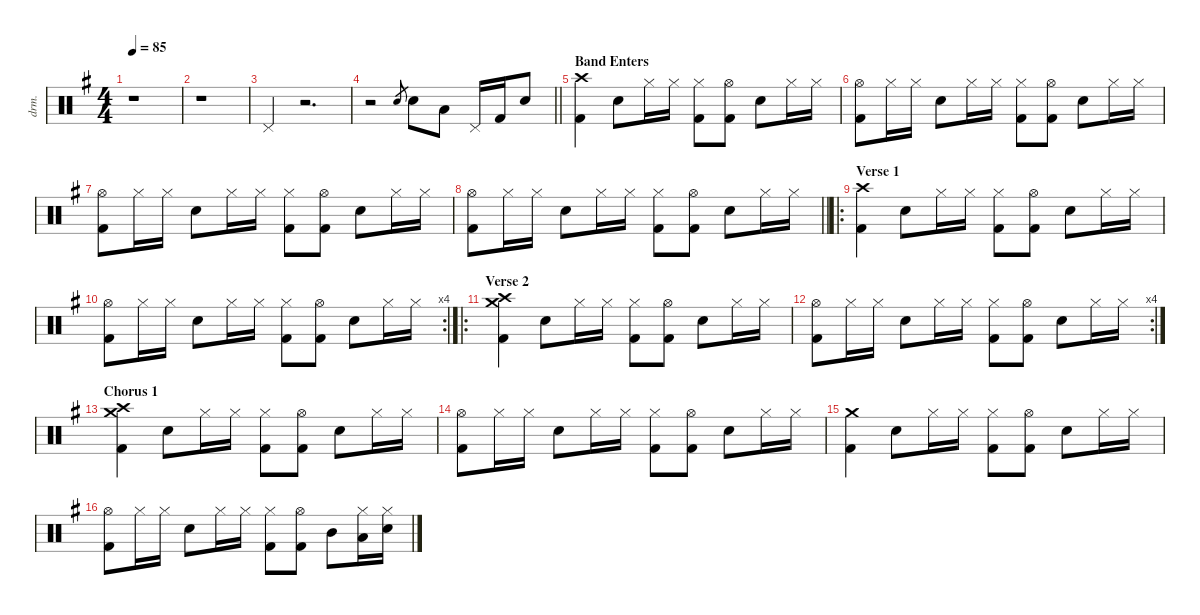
\defaultSystemsLayout 4
\hideDynamics
\bracketExtendMode nobrackets
\otherSystemsTrackNameOrientation horizontal
\track ("Drums" "drm.") {defaultSystemsLayout 4 instrument percussion}
\staff {score}
\articulation defaults
\ts (4 4)
\beaming (8 2 2 2 2)
\tempo 85
\clef neutral
\ks g
r.1{dy f beam Down} |
r.1{beam Down} |
"Pedal Hi-Hat (hit)"{acc forcenatural}.4{beam Up} r.2{d beam Up} |
\barLineRight lightlight
r.2{beam Down} "Electric Snare (hit)"{acc forcenatural}.8{gr dy mp beam Up} "Snare (hit) 2"{acc forcenatural}.8{dy f beam Down} "Low Tom (hit)"{acc forcenatural}.8{dy fff beam Down} "Pedal Hi-Hat (hit)"{acc forcenatural}.16{dy f beam Up} "Kick (hit) 2"{acc forcenatural}.16{beam Up} "Snare (hit) 2"{acc forcenatural}.8{beam Up} |
\section ("" "Band Enters")
("Crash high (hit)"{acc forcenatural} "Kick (hit) 2"{acc forcenatural}).4{beam Down} "Snare (hit) 2"{acc forcenatural}.8{beam Down} "Hi-Hat (closed)"{acc forcenatural}.16{beam Down} "Hi-Hat (closed)"{acc forcenatural}.16{beam Down} ("Hi-Hat (closed)"{acc forcenatural} "Kick (hit) 2"{acc forcenatural}).8{beam Down} ("Hi-Hat (open)"{acc forcenatural} "Kick (hit) 2"{acc forcenatural}).8{beam Down} "Snare (hit) 2"{acc forcenatural}.8{beam Down} "Hi-Hat (closed)"{acc forcenatural}.16{beam Down} "Hi-Hat (closed)"{acc forcenatural}.16{beam Down} |
("Hi-Hat (open)"{acc forcenatural} "Kick (hit) 2"{acc forcenatural}).8{beam Down} "Hi-Hat (closed)"{acc forcenatural}.16{beam Down} "Hi-Hat (closed)"{acc forcenatural}.16{beam Down} "Snare (hit) 2"{acc forcenatural}.8{beam Down} "Hi-Hat (closed)"{acc forcenatural}.16{beam Down} "Hi-Hat (closed)"{acc forcenatural}.16{beam Down} ("Hi-Hat (closed)"{acc forcenatural} "Kick (hit) 2"{acc forcenatural}).8{beam Down} ("Hi-Hat (open)"{acc forcenatural} "Kick (hit) 2"{acc forcenatural}).8{beam Down} "Snare (hit) 2"{acc forcenatural}.8{beam Down} "Hi-Hat (closed)"{acc forcenatural}.16{beam Down} "Hi-Hat (closed)"{acc forcenatural}.16{beam Down} |
("Hi-Hat (open)"{acc forcenatural} "Kick (hit) 2"{acc forcenatural}).8{beam Down} "Hi-Hat (closed)"{acc forcenatural}.16{beam Down} "Hi-Hat (closed)"{acc forcenatural}.16{beam Down} "Snare (hit) 2"{acc forcenatural}.8{beam Down} "Hi-Hat (closed)"{acc forcenatural}.16{beam Down} "Hi-Hat (closed)"{acc forcenatural}.16{beam Down} ("Hi-Hat (closed)"{acc forcenatural} "Kick (hit) 2"{acc forcenatural}).8{beam Down} ("Hi-Hat (open)"{acc forcenatural} "Kick (hit) 2"{acc forcenatural}).8{beam Down} "Snare (hit) 2"{acc forcenatural}.8{beam Down} "Hi-Hat (closed)"{acc forcenatural}.16{beam Down} "Hi-Hat (closed)"{acc forcenatural}.16{beam Down} |
\barLineRight lightlight
("Hi-Hat (open)"{acc forcenatural} "Kick (hit) 2"{acc forcenatural}).8{beam Down} "Hi-Hat (closed)"{acc forcenatural}.16{beam Down} "Hi-Hat (closed)"{acc forcenatural}.16{beam Down} "Snare (hit) 2"{acc forcenatural}.8{beam Down} "Hi-Hat (closed)"{acc forcenatural}.16{beam Down} "Hi-Hat (closed)"{acc forcenatural}.16{beam Down} ("Hi-Hat (closed)"{acc forcenatural} "Kick (hit) 2"{acc forcenatural}).8{beam Down} ("Hi-Hat (open)"{acc forcenatural} "Kick (hit) 2"{acc forcenatural}).8{beam Down} "Snare (hit) 2"{acc forcenatural}.8{beam Down} "Hi-Hat (closed)"{acc forcenatural}.16{beam Down} "Hi-Hat (closed)"{acc forcenatural}.16{beam Down} |
\ro
\section ("" "Verse 1")
("Crash high (hit)"{acc forcenatural} "Kick (hit) 2"{acc forcenatural}).4{beam Down} "Snare (hit) 2"{acc forcenatural}.8{beam Down} "Hi-Hat (closed)"{acc forcenatural}.16{beam Down} "Hi-Hat (closed)"{acc forcenatural}.16{beam Down} ("Hi-Hat (closed)"{acc forcenatural} "Kick (hit) 2"{acc forcenatural}).8{beam Down} ("Hi-Hat (open)"{acc forcenatural} "Kick (hit) 2"{acc forcenatural}).8{beam Down} "Snare (hit) 2"{acc forcenatural}.8{beam Down} "Hi-Hat (closed)"{acc forcenatural}.16{beam Down} "Hi-Hat (closed)"{acc forcenatural}.16{beam Down} |
\rc 4
("Hi-Hat (open)"{acc forcenatural} "Kick (hit) 2"{acc forcenatural}).8{beam Down} "Hi-Hat (closed)"{acc forcenatural}.16{beam Down} "Hi-Hat (closed)"{acc forcenatural}.16{beam Down} "Snare (hit) 2"{acc forcenatural}.8{beam Down} "Hi-Hat (closed)"{acc forcenatural}.16{beam Down} "Hi-Hat (closed)"{acc forcenatural}.16{beam Down} ("Hi-Hat (closed)"{acc forcenatural} "Kick (hit) 2"{acc forcenatural}).8{beam Down} ("Hi-Hat (open)"{acc forcenatural} "Kick (hit) 2"{acc forcenatural}).8{beam Down} "Snare (hit) 2"{acc forcenatural}.8{beam Down} "Hi-Hat (closed)"{acc forcenatural}.16{beam Down} "Hi-Hat (closed)"{acc forcenatural}.16{beam Down} |
\ro
\section ("" "Verse 2")
("Crash medium (hit)"{acc forcenatural} "Crash high (hit)"{acc forcenatural} "Kick (hit) 2"{acc forcenatural}).4{beam Down} "Snare (hit) 2"{acc forcenatural}.8{beam Down} "Hi-Hat (closed)"{acc forcenatural}.16{beam Down} "Hi-Hat (closed)"{acc forcenatural}.16{beam Down} ("Hi-Hat (closed)"{acc forcenatural} "Kick (hit) 2"{acc forcenatural}).8{beam Down} ("Hi-Hat (open)"{acc forcenatural} "Kick (hit) 2"{acc forcenatural}).8{beam Down} "Snare (hit) 2"{acc forcenatural}.8{beam Down} "Hi-Hat (closed)"{acc forcenatural}.16{beam Down} "Hi-Hat (closed)"{acc forcenatural}.16{beam Down} |
\rc 4
("Hi-Hat (open)"{acc forcenatural} "Kick (hit) 2"{acc forcenatural}).8{beam Down} "Hi-Hat (closed)"{acc forcenatural}.16{beam Down} "Hi-Hat (closed)"{acc forcenatural}.16{beam Down} "Snare (hit) 2"{acc forcenatural}.8{beam Down} "Hi-Hat (closed)"{acc forcenatural}.16{beam Down} "Hi-Hat (closed)"{acc forcenatural}.16{beam Down} ("Hi-Hat (closed)"{acc forcenatural} "Kick (hit) 2"{acc forcenatural}).8{beam Down} ("Hi-Hat (open)"{acc forcenatural} "Kick (hit) 2"{acc forcenatural}).8{beam Down} "Snare (hit) 2"{acc forcenatural}.8{beam Down} "Hi-Hat (closed)"{acc forcenatural}.16{beam Down} "Hi-Hat (closed)"{acc forcenatural}.16{beam Down} |
\section ("" "Chorus 1")
("Crash medium (hit)"{acc forcenatural} "Crash high (hit)"{acc forcenatural} "Kick (hit) 2"{acc forcenatural}).4{beam Down} "Snare (hit) 2"{acc forcenatural}.8{beam Down} "Hi-Hat (closed)"{acc forcenatural}.16{beam Down} "Hi-Hat (closed)"{acc forcenatural}.16{beam Down} ("Hi-Hat (closed)"{acc forcenatural} "Kick (hit) 2"{acc forcenatural}).8{beam Down} ("Hi-Hat (open)"{acc forcenatural} "Kick (hit) 2"{acc forcenatural}).8{beam Down} "Snare (hit) 2"{acc forcenatural}.8{beam Down} "Hi-Hat (closed)"{acc forcenatural}.16{beam Down} "Hi-Hat (closed)"{acc forcenatural}.16{beam Down} |
("Hi-Hat (open)"{acc forcenatural} "Kick (hit) 2"{acc forcenatural}).8{beam Down} "Hi-Hat (closed)"{acc forcenatural}.16{beam Down} "Hi-Hat (closed)"{acc forcenatural}.16{beam Down} "Snare (hit) 2"{acc forcenatural}.8{beam Down} "Hi-Hat (closed)"{acc forcenatural}.16{beam Down} "Hi-Hat (closed)"{acc forcenatural}.16{beam Down} ("Hi-Hat (closed)"{acc forcenatural} "Kick (hit) 2"{acc forcenatural}).8{beam Down} ("Hi-Hat (open)"{acc forcenatural} "Kick (hit) 2"{acc forcenatural}).8{beam Down} "Snare (hit) 2"{acc forcenatural}.8{beam Down} "Hi-Hat (closed)"{acc forcenatural}.16{beam Down} "Hi-Hat (closed)"{acc forcenatural}.16{beam Down} |
("Crash medium (hit)"{acc forcenatural} "Kick (hit) 2"{acc forcenatural}).4{beam Down} "Snare (hit) 2"{acc forcenatural}.8{beam Down} "Hi-Hat (closed)"{acc forcenatural}.16{beam Down} "Hi-Hat (closed)"{acc forcenatural}.16{beam Down} ("Hi-Hat (closed)"{acc forcenatural} "Kick (hit) 2"{acc forcenatural}).8{beam Down} ("Hi-Hat (open)"{acc forcenatural} "Kick (hit) 2"{acc forcenatural}).8{beam Down} "Snare (hit) 2"{acc forcenatural}.8{beam Down} "Hi-Hat (closed)"{acc forcenatural}.16{beam Down} "Hi-Hat (closed)"{acc forcenatural}.16{beam Down} |
("Hi-Hat (open)"{acc forcenatural} "Kick (hit) 2"{acc forcenatural}).8{beam Down} "Hi-Hat (closed)"{acc forcenatural}.16{beam Down} "Hi-Hat (closed)"{acc forcenatural}.16{beam Down} "Snare (hit) 2"{acc forcenatural}.8{beam Down} "Hi-Hat (closed)"{acc forcenatural}.16{beam Down} "Hi-Hat (closed)"{acc forcenatural}.16{beam Down} ("Hi-Hat (closed)"{acc forcenatural} "Kick (hit) 2"{acc forcenatural}).8{beam Down} ("Hi-Hat (open)"{acc forcenatural} "Kick (hit) 2"{acc forcenatural}).8{beam Down} "Mid Tom (hit)"{acc forcenatural}.8{beam Down} ("Hi-Hat (closed)"{acc forcenatural} "Low Tom (hit)"{acc forcenatural}).16{beam Down} ("Hi-Hat (closed)"{acc forcenatural} "Snare (hit) 2"{acc forcenatural}).16{beam Down}
